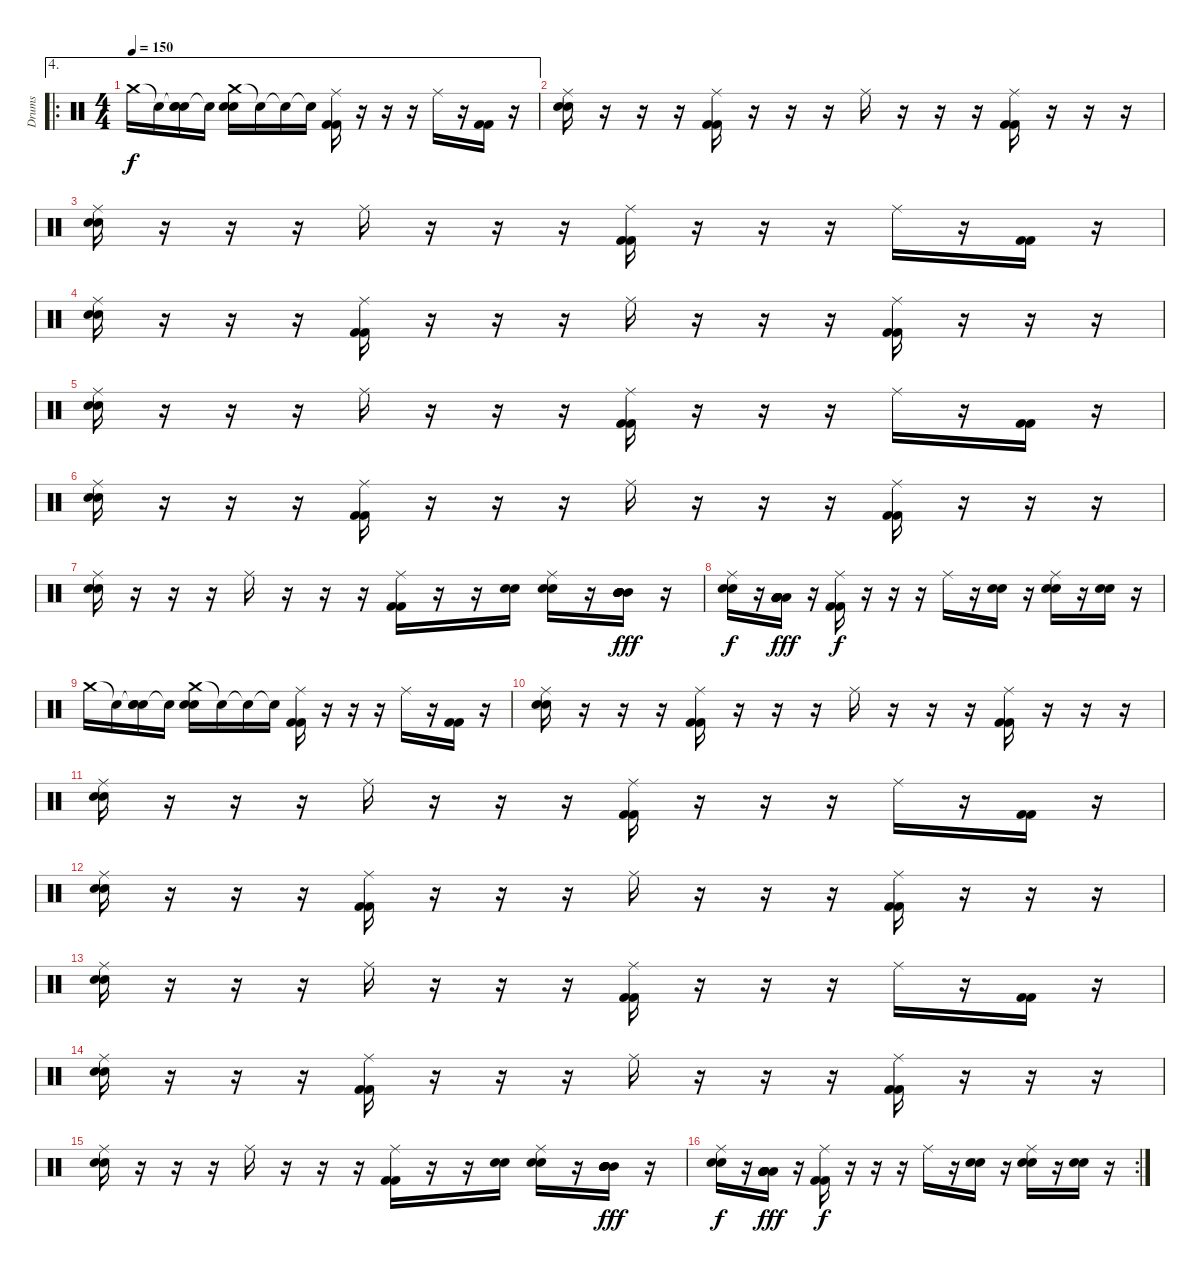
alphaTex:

\track ("Drums" "Drums") {instrument percussion}
\staff {score}
\articulation defaults
\ae 4
\ro
\ts (4 4)
\tempo 150
\clef neutral
\ks c "Crash medium (hit)".16{dy f} "Snare (hit)"{t}.16
("Snare (hit)"{t} "Electric Snare (hit)" "Electric Snare (hit)").16 "Snare (hit)"{t}.16 ("Crash medium (hit)" "Electric Snare (hit)" "Electric Snare (hit)").16 "Snare (hit)"{t}.16 "Snare (hit)"{t}.16 "Snare (hit)"{t}.16 ("Ride (middle)" "Kick (hit) 2" "Kick (hit) 2").16 r.16 r.16 r.16 "Ride (middle)".16 r.16 ("Kick (hit) 2" "Kick (hit) 2").16 r.16 |
("Ride (middle)" "Electric Snare (hit)" "Electric Snare (hit)").16 r.16 r.16 r.16 ("Ride (middle)" "Kick (hit) 2" "Kick (hit) 2").16 r.16 r.16 r.16 "Ride (middle)".16 r.16 r.16 r.16 ("Ride (middle)" "Kick (hit) 2" "Kick (hit) 2").16 r.16 r.16 r.16 |
("Ride (middle)" "Electric Snare (hit)" "Electric Snare (hit)").16 r.16 r.16 r.16 "Ride (middle)".16 r.16 r.16 r.16 ("Ride (middle)" "Kick (hit) 2" "Kick (hit) 2").16 r.16 r.16 r.16 "Ride (middle)".16 r.16 ("Kick (hit) 2" "Kick (hit) 2").16 r.16 |
("Ride (middle)" "Electric Snare (hit)" "Electric Snare (hit)").16 r.16 r.16 r.16 ("Ride (middle)" "Kick (hit) 2" "Kick (hit) 2").16 r.16 r.16 r.16 "Ride (middle)".16 r.16 r.16 r.16 ("Ride (middle)" "Kick (hit) 2" "Kick (hit) 2").16 r.16 r.16 r.16 |
("Ride (middle)" "Electric Snare (hit)" "Electric Snare (hit)").16 r.16 r.16 r.16 "Ride (middle)".16 r.16 r.16 r.16 ("Ride (middle)" "Kick (hit) 2" "Kick (hit) 2").16 r.16 r.16 r.16 "Ride (middle)".16 r.16 ("Kick (hit) 2" "Kick (hit) 2").16 r.16 |
("Ride (middle)" "Electric Snare (hit)" "Electric Snare (hit)").16 r.16 r.16 r.16 ("Ride (middle)" "Kick (hit) 2" "Kick (hit) 2").16 r.16 r.16 r.16 "Ride (middle)".16 r.16 r.16 r.16 ("Ride (middle)" "Kick (hit) 2" "Kick (hit) 2").16 r.16 r.16 r.16 |
("Ride (middle)" "Electric Snare (hit)" "Electric Snare (hit)").16 r.16 r.16 r.16 "Ride (middle)".16 r.16 r.16 r.16 ("Ride (middle)" "Kick (hit) 2" "Kick (hit) 2").16 r.16 r.16 ("Electric Snare (hit)" "Electric Snare (hit)").16 ("Ride (middle)" "Electric Snare (hit)" "Electric Snare (hit)").16 r.16 ("Mid Tom (hit)" "Mid Tom (hit)" "Mid Tom (hit)" "Mid Tom (hit)" "Mid Tom (hit)" "Mid Tom (hit)").16{dy fff} r.16 |
("Ride (middle)" "Electric Snare (hit)" "Electric Snare (hit)").16{dy f} r.16 ("Low Tom (hit)" "Low Tom (hit)" "Low Tom (hit)" "Low Tom (hit)" "Low Tom (hit)" "Low Tom (hit)").16{dy fff} r.16 ("Ride (middle)" "Kick (hit) 2" "Kick (hit) 2").16{dy f} r.16 r.16 r.16 "Ride (middle)".16 r.16 ("Electric Snare (hit)" "Electric Snare (hit)").16 r.16 ("Ride (middle)" "Electric Snare (hit)" "Electric Snare (hit)").16 r.16 ("Electric Snare (hit)" "Electric Snare (hit)").16 r.16 |
"Crash medium (hit)".16 "Snare (hit)"{t}.16 ("Snare (hit)"{t} "Electric Snare (hit)" "Electric Snare (hit)").16 "Snare (hit)"{t}.16 ("Crash medium (hit)" "Electric Snare (hit)" "Electric Snare (hit)").16 "Snare (hit)"{t}.16 "Snare (hit)"{t}.16 "Snare (hit)"{t}.16 ("Ride (middle)" "Kick (hit) 2" "Kick (hit) 2").16 r.16 r.16 r.16 "Ride (middle)".16 r.16 ("Kick (hit) 2" "Kick (hit) 2").16 r.16 |
("Ride (middle)" "Electric Snare (hit)" "Electric Snare (hit)").16 r.16 r.16 r.16 ("Ride (middle)" "Kick (hit) 2" "Kick (hit) 2").16 r.16 r.16 r.16 "Ride (middle)".16 r.16 r.16 r.16 ("Ride (middle)" "Kick (hit) 2" "Kick (hit) 2").16 r.16 r.16 r.16 |
("Ride (middle)" "Electric Snare (hit)" "Electric Snare (hit)").16 r.16 r.16 r.16 "Ride (middle)".16 r.16 r.16 r.16 ("Ride (middle)" "Kick (hit) 2" "Kick (hit) 2").16 r.16 r.16 r.16 "Ride (middle)".16 r.16 ("Kick (hit) 2" "Kick (hit) 2").16 r.16 |
("Ride (middle)" "Electric Snare (hit)" "Electric Snare (hit)").16 r.16 r.16 r.16 ("Ride (middle)" "Kick (hit) 2" "Kick (hit) 2").16 r.16 r.16 r.16 "Ride (middle)".16 r.16 r.16 r.16 ("Ride (middle)" "Kick (hit) 2" "Kick (hit) 2").16 r.16 r.16 r.16 |
("Ride (middle)" "Electric Snare (hit)" "Electric Snare (hit)").16 r.16 r.16 r.16 "Ride (middle)".16 r.16 r.16 r.16 ("Ride (middle)" "Kick (hit) 2" "Kick (hit) 2").16 r.16 r.16 r.16 "Ride (middle)".16 r.16 ("Kick (hit) 2" "Kick (hit) 2").16 r.16 |
("Ride (middle)" "Electric Snare (hit)" "Electric Snare (hit)").16 r.16 r.16 r.16 ("Ride (middle)" "Kick (hit) 2" "Kick (hit) 2").16 r.16 r.16 r.16 "Ride (middle)".16 r.16 r.16 r.16 ("Ride (middle)" "Kick (hit) 2" "Kick (hit) 2").16 r.16 r.16 r.16 |
("Ride (middle)" "Electric Snare (hit)" "Electric Snare (hit)").16 r.16 r.16 r.16 "Ride (middle)".16 r.16 r.16 r.16 ("Ride (middle)" "Kick (hit) 2" "Kick (hit) 2").16 r.16 r.16 ("Electric Snare (hit)" "Electric Snare (hit)").16 ("Ride (middle)" "Electric Snare (hit)" "Electric Snare (hit)").16 r.16 ("Mid Tom (hit)" "Mid Tom (hit)" "Mid Tom (hit)" "Mid Tom (hit)" "Mid Tom (hit)" "Mid Tom (hit)").16{dy fff} r.16 |
\rc 2
("Ride (middle)" "Electric Snare (hit)" "Electric Snare (hit)").16{dy f} r.16 ("Low Tom (hit)" "Low Tom (hit)" "Low Tom (hit)" "Low Tom (hit)" "Low Tom (hit)" "Low Tom (hit)").16{dy fff} r.16 ("Ride (middle)" "Kick (hit) 2" "Kick (hit) 2").16{dy f} r.16 r.16 r.16 "Ride (middle)".16 r.16 ("Electric Snare (hit)" "Electric Snare (hit)").16 r.16 ("Ride (middle)" "Electric Snare (hit)" "Electric Snare (hit)").16 r.16 ("Electric Snare (hit)" "Electric Snare (hit)").16 r.16
